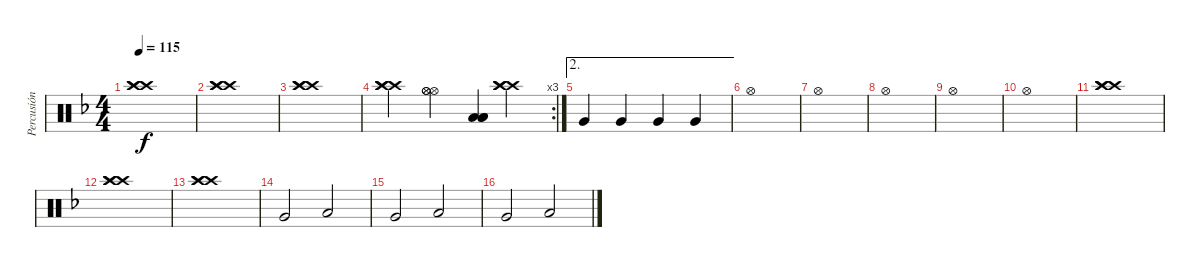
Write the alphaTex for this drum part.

\track ("Percusión" "Percusión") {instrument percussion}
\staff {score}
\articulation defaults
\ts (4 4)
\tempo 115
\clef neutral
\ks dminor
("Crash high (hit)" "Crash high (hit)" "Crash high (hit)").1{dy f} |
("Crash high (hit)" "Crash high (hit)" "Crash high (hit)").1 |
("Crash high (hit)" "Crash high (hit)" "Crash high (hit)").1 |
\rc 3
("Crash high (hit)" "Crash high (hit)" "Crash high (hit)").4 ("Hi-Hat (open)" "Hi-Hat (open)" "Hi-Hat (open)").4 ("Low Tom (hit)" "Low Tom (hit)" "Low Tom (hit)").4 ("Crash high (hit)" "Crash high (hit)" "Crash high (hit)").4 |
\ae 2 "Very Low Tom (hit)".4 "Very Low Tom (hit)".4 "Very Low Tom (hit)".4 "Very Low Tom (hit)".4
|
"Hi-Hat (open)".1 |
"Hi-Hat (open)".1 |
"Hi-Hat (open)".1 |
"Hi-Hat (open)".1 |
"Hi-Hat (open)".1 |
("Crash high (hit)" "Crash high (hit)" "Crash high (hit)").1 |
("Crash high (hit)" "Crash high (hit)" "Crash high (hit)").1 |
("Crash high (hit)" "Crash high (hit)" "Crash high (hit)").1 |
"Very Low Tom (hit)".2 "Low Floor Tom (hit)".2 |
"Very Low Tom (hit)".2 "Low Floor Tom (hit)".2 |
"Very Low Tom (hit)".2 "Low Floor Tom (hit)".2
